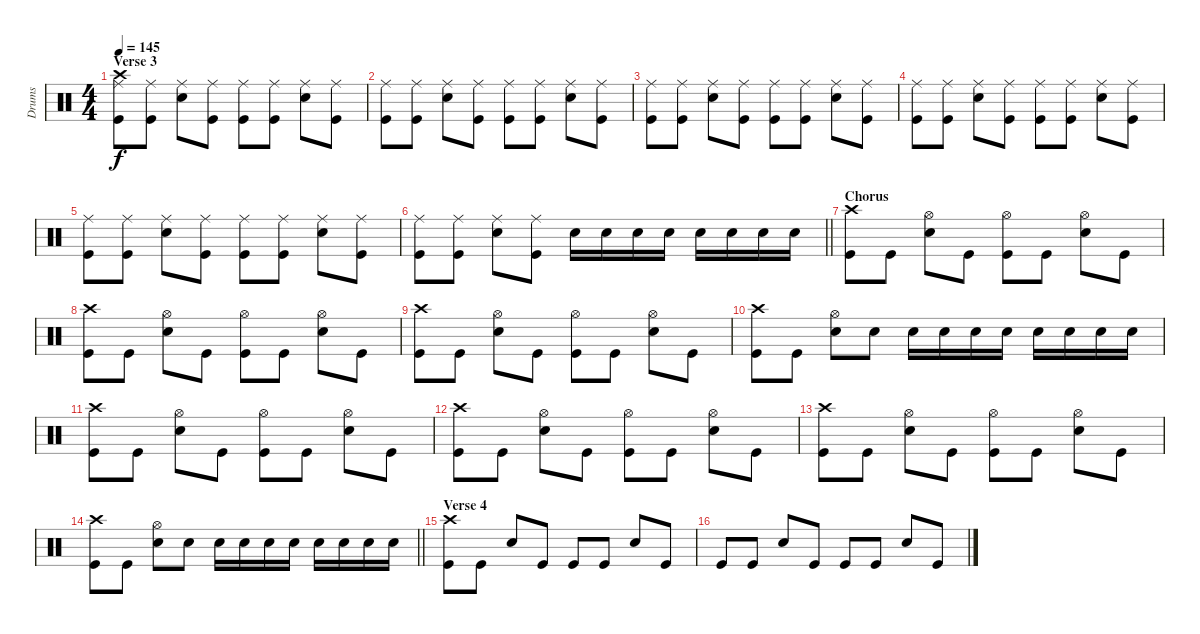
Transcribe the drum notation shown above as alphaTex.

\track ("Drums" "Drums") {instrument percussion}
\staff {score}
\articulation defaults
\ts (4 4)
\section ("" "Verse 3")
\tempo 145
\clef neutral
\ks c
("Crash high (hit)" "Ride (middle)" "Kick (hit)").8{dy f} ("Ride (middle)" "Kick (hit)").8 ("Ride (middle)" "Snare (hit) 2").8 ("Ride (middle)" "Kick (hit)").8 ("Ride (middle)" "Kick (hit)").8 ("Ride (middle)" "Kick (hit)").8 ("Ride (middle)" "Snare (hit) 2").8 ("Ride (middle)" "Kick (hit)").8 |
("Ride (middle)" "Kick (hit)").8 ("Ride (middle)" "Kick (hit)").8 ("Ride (middle)" "Snare (hit) 2").8 ("Ride (middle)" "Kick (hit)").8 ("Ride (middle)" "Kick (hit)").8 ("Ride (middle)" "Kick (hit)").8 ("Ride (middle)" "Snare (hit) 2").8 ("Ride (middle)" "Kick (hit)").8 |
("Ride (middle)" "Kick (hit)").8 ("Ride (middle)" "Kick (hit)").8 ("Ride (middle)" "Snare (hit) 2").8 ("Ride (middle)" "Kick (hit)").8 ("Ride (middle)" "Kick (hit)").8 ("Ride (middle)" "Kick (hit)").8 ("Ride (middle)" "Snare (hit) 2").8 ("Ride (middle)" "Kick (hit)").8 |
("Ride (middle)" "Kick (hit)").8 ("Ride (middle)" "Kick (hit)").8 ("Ride (middle)" "Snare (hit) 2").8 ("Ride (middle)" "Kick (hit)").8 ("Ride (middle)" "Kick (hit)").8 ("Ride (middle)" "Kick (hit)").8 ("Ride (middle)" "Snare (hit) 2").8 ("Ride (middle)" "Kick (hit)").8 |
("Ride (middle)" "Kick (hit)").8 ("Ride (middle)" "Kick (hit)").8 ("Ride (middle)" "Snare (hit) 2").8 ("Ride (middle)" "Kick (hit)").8 ("Ride (middle)" "Kick (hit)").8 ("Ride (middle)" "Kick (hit)").8 ("Ride (middle)" "Snare (hit) 2").8 ("Ride (middle)" "Kick (hit)").8 |
\barLineRight lightlight
("Ride (middle)" "Kick (hit)").8 ("Ride (middle)" "Kick (hit)").8 ("Ride (middle)" "Snare (hit) 2").8 ("Ride (middle)" "Kick (hit)").8 "Snare (hit) 2".16 "Snare (hit) 2".16 "Snare (hit) 2".16 "Snare (hit) 2".16 "Snare (hit) 2".16 "Snare (hit) 2".16 "Snare (hit) 2".16 "Snare (hit) 2".16 |
\section ("" "Chorus")
("Crash high (hit)" "Kick (hit)").8 "Kick (hit)".8 ("Hi-Hat (open)" "Snare (hit) 2").8 "Kick (hit)".8 ("Hi-Hat (open)" "Kick (hit)").8 "Kick (hit)".8 ("Hi-Hat (open)" "Snare (hit) 2").8 "Kick (hit)".8 |
("Crash high (hit)" "Kick (hit)").8 "Kick (hit)".8 ("Hi-Hat (open)" "Snare (hit) 2").8 "Kick (hit)".8 ("Hi-Hat (open)" "Kick (hit)").8 "Kick (hit)".8 ("Hi-Hat (open)" "Snare (hit) 2").8 "Kick (hit)".8 |
("Crash high (hit)" "Kick (hit)").8 "Kick (hit)".8 ("Hi-Hat (open)" "Snare (hit) 2").8 "Kick (hit)".8 ("Hi-Hat (open)" "Kick (hit)").8 "Kick (hit)".8 ("Hi-Hat (open)" "Snare (hit) 2").8 "Kick (hit)".8 |
("Crash high (hit)" "Kick (hit)").8 "Kick (hit)".8 ("Hi-Hat (open)" "Snare (hit) 2").8 "Snare (hit) 2".8 "Snare (hit) 2".16 "Snare (hit) 2".16 "Snare (hit) 2".16 "Snare (hit) 2".16 "Snare (hit) 2".16 "Snare (hit) 2".16 "Snare (hit) 2".16 "Snare (hit) 2".16 |
("Crash high (hit)" "Kick (hit)").8 "Kick (hit)".8 ("Hi-Hat (open)" "Snare (hit) 2").8 "Kick (hit)".8 ("Hi-Hat (open)" "Kick (hit)").8 "Kick (hit)".8 ("Hi-Hat (open)" "Snare (hit) 2").8 "Kick (hit)".8 |
("Crash high (hit)" "Kick (hit)").8 "Kick (hit)".8 ("Hi-Hat (open)" "Snare (hit) 2").8 "Kick (hit)".8 ("Hi-Hat (open)" "Kick (hit)").8 "Kick (hit)".8 ("Hi-Hat (open)" "Snare (hit) 2").8 "Kick (hit)".8 |
("Crash high (hit)" "Kick (hit)").8 "Kick (hit)".8 ("Hi-Hat (open)" "Snare (hit) 2").8 "Kick (hit)".8 ("Hi-Hat (open)" "Kick (hit)").8 "Kick (hit)".8 ("Hi-Hat (open)" "Snare (hit) 2").8 "Kick (hit)".8 |
\barLineRight lightlight
("Crash high (hit)" "Kick (hit)").8 "Kick (hit)".8 ("Hi-Hat (open)" "Snare (hit) 2").8 "Snare (hit) 2".8 "Snare (hit) 2".16 "Snare (hit) 2".16 "Snare (hit) 2".16 "Snare (hit) 2".16 "Snare (hit) 2".16 "Snare (hit) 2".16 "Snare (hit) 2".16 "Snare (hit) 2".16 |
\section ("" "Verse 4")
("Crash high (hit)" "Kick (hit)").8 "Kick (hit)".8 "Snare (hit) 2".8 "Kick (hit)".8 "Kick (hit)".8 "Kick (hit)".8 "Snare (hit) 2".8 "Kick (hit)".8 |
"Kick (hit)".8 "Kick (hit)".8 "Snare (hit) 2".8 "Kick (hit)".8 "Kick (hit)".8 "Kick (hit)".8 "Snare (hit) 2".8 "Kick (hit)".8
